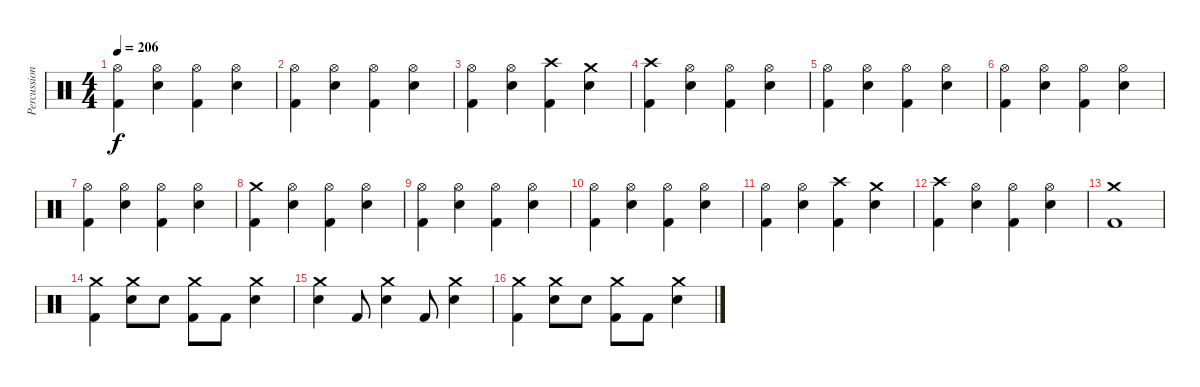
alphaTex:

\track ("Percussion" "Percussion") {instrument percussion}
\staff {score}
\articulation defaults
\ts (4 4)
\tempo 206
\clef neutral
\ks c
("Hi-Hat (open)" "Kick (hit) 2").4{dy f} ("Hi-Hat (open)" "Electric Snare (hit)").4 ("Hi-Hat (open)" "Kick (hit) 2").4 ("Hi-Hat (open)" "Electric Snare (hit)").4 |
("Hi-Hat (open)" "Kick (hit) 2").4 ("Hi-Hat (open)" "Electric Snare (hit)").4 ("Hi-Hat (open)" "Kick (hit) 2").4 ("Hi-Hat (open)" "Electric Snare (hit)").4 |
("Hi-Hat (open)" "Kick (hit) 2").4 ("Hi-Hat (open)" "Electric Snare (hit)").4 ("Crash high (hit)" "Kick (hit) 2").4 ("Crash medium (hit)" "Electric Snare (hit)").4 |
("Crash high (hit)" "Kick (hit) 2").4 ("Hi-Hat (open)" "Electric Snare (hit)").4 ("Hi-Hat (open)" "Kick (hit) 2").4 ("Hi-Hat (open)" "Electric Snare (hit)").4 |
("Hi-Hat (open)" "Kick (hit) 2").4 ("Hi-Hat (open)" "Electric Snare (hit)").4 ("Hi-Hat (open)" "Kick (hit) 2").4 ("Hi-Hat (open)" "Electric Snare (hit)").4 |
("Hi-Hat (open)" "Kick (hit) 2").4 ("Hi-Hat (open)" "Electric Snare (hit)").4 ("Hi-Hat (open)" "Kick (hit) 2").4 ("Hi-Hat (open)" "Electric Snare (hit)").4 |
("Hi-Hat (open)" "Kick (hit) 2").4 ("Hi-Hat (open)" "Electric Snare (hit)").4 ("Hi-Hat (open)" "Kick (hit) 2").4 ("Hi-Hat (open)" "Electric Snare (hit)").4 |
("Crash medium (hit)" "Kick (hit) 2").4 ("Hi-Hat (open)" "Electric Snare (hit)").4 ("Hi-Hat (open)" "Kick (hit) 2").4 ("Hi-Hat (open)" "Electric Snare (hit)").4 |
("Hi-Hat (open)" "Kick (hit) 2").4 ("Hi-Hat (open)" "Electric Snare (hit)").4 ("Hi-Hat (open)" "Kick (hit) 2").4 ("Hi-Hat (open)" "Electric Snare (hit)").4 |
("Hi-Hat (open)" "Kick (hit) 2").4 ("Hi-Hat (open)" "Electric Snare (hit)").4 ("Hi-Hat (open)" "Kick (hit) 2").4 ("Hi-Hat (open)" "Electric Snare (hit)").4 |
("Hi-Hat (open)" "Kick (hit) 2").4 ("Hi-Hat (open)" "Electric Snare (hit)").4 ("Crash high (hit)" "Kick (hit) 2").4 ("Crash medium (hit)" "Electric Snare (hit)").4 |
("Crash high (hit)" "Kick (hit) 2").4 ("Hi-Hat (open)" "Electric Snare (hit)").4 ("Hi-Hat (open)" "Kick (hit) 2").4 ("Hi-Hat (open)" "Electric Snare (hit)").4 |
("Crash medium (hit)" "Kick (hit) 2").1 |
("Crash medium (hit)" "Kick (hit) 2").4 ("Crash medium (hit)" "Electric Snare (hit)").8 "Electric Snare (hit)".8 ("Crash medium (hit)" "Kick (hit) 2").8 "Kick (hit) 2".8 ("Crash medium (hit)" "Electric Snare (hit)").4 |
("Crash medium (hit)" "Electric Snare (hit)").4 "Kick (hit) 2".8 ("Crash medium (hit)" "Electric Snare (hit)").4 "Kick (hit) 2".8 ("Crash medium (hit)" "Electric Snare (hit)").4 |
("Crash medium (hit)" "Kick (hit) 2").4 ("Crash medium (hit)" "Electric Snare (hit)").8 "Electric Snare (hit)".8 ("Crash medium (hit)" "Kick (hit) 2").8 "Kick (hit) 2".8 ("Crash medium (hit)" "Electric Snare (hit)").4
